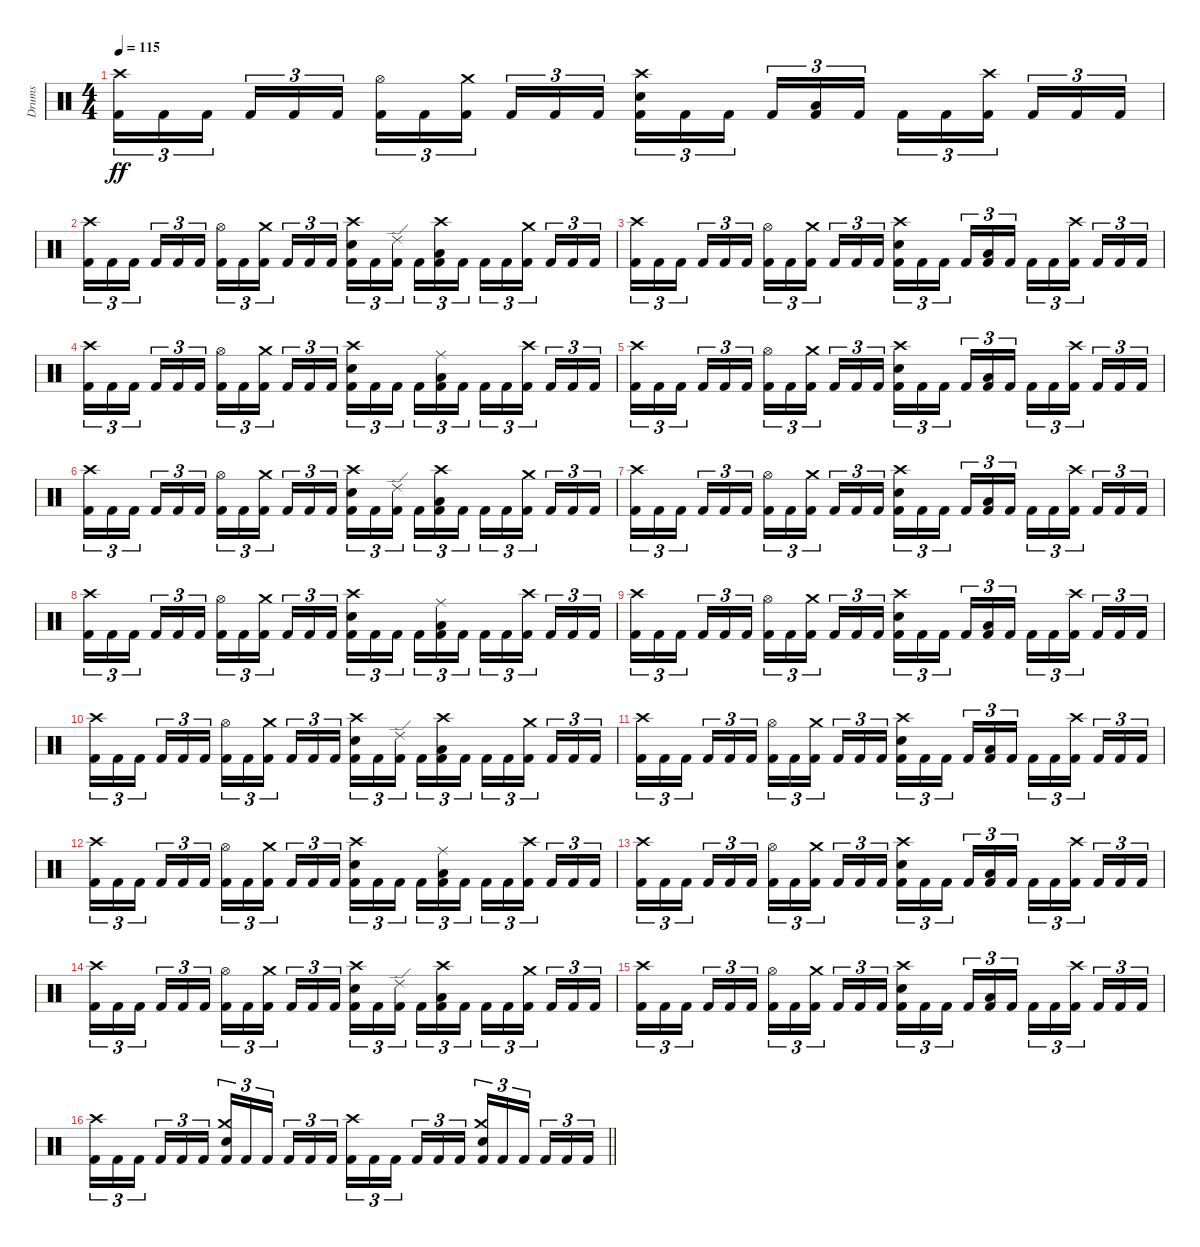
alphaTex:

\track ("Drums" "Drums") {instrument percussion}
\staff {score}
\articulation defaults
\ts (4 4)
\tempo 115
\clef neutral
\ks c
("Crash high (hit)" "Kick (hit) 2").16{tu (3 2) dy ff} "Kick (hit) 2".16{tu (3 2)} "Kick (hit) 2".16{tu (3 2) beam splitsecondary} "Kick (hit) 2".16{tu (3 2)} "Kick (hit) 2".16{tu (3 2)} "Kick (hit) 2".16{tu (3 2)} ("Hi-Hat (open)" "Kick (hit) 2").16{tu (3 2)} "Kick (hit) 2".16{tu (3 2)} ("Crash medium (hit)" "Kick (hit) 2").16{tu (3 2) beam splitsecondary} "Kick (hit) 2".16{tu (3 2)} "Kick (hit) 2".16{tu (3 2)} "Kick (hit) 2".16{tu (3 2)} ("Crash high (hit)" "Snare (hit) 2" "Kick (hit) 2").16{tu (3 2)} "Kick (hit) 2".16{tu (3 2)} "Kick (hit) 2".16{tu (3 2) beam splitsecondary} "Kick (hit) 2".16{tu (3 2)} ("Low Tom (hit)" "Kick (hit) 2").16{tu (3 2)} "Kick (hit) 2".16{tu (3 2)} "Kick (hit) 2".16{tu (3 2)} "Kick (hit) 2".16{tu (3 2)} ("Crash high (hit)" "Kick (hit) 2").16{tu (3 2) beam splitsecondary} "Kick (hit) 2".16{tu (3 2)} "Kick (hit) 2".16{tu (3 2)} "Kick (hit) 2".16{tu (3 2)} |
("Crash high (hit)" "Kick (hit) 2").16{tu (3 2)} "Kick (hit) 2".16{tu (3 2)} "Kick (hit) 2".16{tu (3 2) beam splitsecondary} "Kick (hit) 2".16{tu (3 2)} "Kick (hit) 2".16{tu (3 2)} "Kick (hit) 2".16{tu (3 2)} ("Hi-Hat (open)" "Kick (hit) 2").16{tu (3 2)} "Kick (hit) 2".16{tu (3 2)} ("Crash medium (hit)" "Kick (hit) 2").16{tu (3 2) beam splitsecondary} "Kick (hit) 2".16{tu (3 2)} "Kick (hit) 2".16{tu (3 2)} "Kick (hit) 2".16{tu (3 2)} ("Crash high (hit)" "Snare (hit) 2" "Kick (hit) 2").16{tu (3 2)} "Kick (hit) 2".16{tu (3 2)} ("Ride (edge) 2" "Kick (hit) 2").16{tu (3 2) beam splitsecondary} "Kick (hit) 2".16{tu (3 2)} ("Crash high (hit)" "Low Tom (hit)" "Kick (hit) 2").16{tu (3 2)} "Kick (hit) 2".16{tu (3 2)} "Kick (hit) 2".16{tu (3 2)} "Kick (hit) 2".16{tu (3 2)} ("Crash medium (hit)" "Kick (hit) 2").16{tu (3 2) beam splitsecondary} "Kick (hit) 2".16{tu (3 2)} "Kick (hit) 2".16{tu (3 2)} "Kick (hit) 2".16{tu (3 2)} |
("Crash high (hit)" "Kick (hit) 2").16{tu (3 2)} "Kick (hit) 2".16{tu (3 2)} "Kick (hit) 2".16{tu (3 2) beam splitsecondary} "Kick (hit) 2".16{tu (3 2)} "Kick (hit) 2".16{tu (3 2)} "Kick (hit) 2".16{tu (3 2)} ("Hi-Hat (open)" "Kick (hit) 2").16{tu (3 2)} "Kick (hit) 2".16{tu (3 2)} ("Crash medium (hit)" "Kick (hit) 2").16{tu (3 2) beam splitsecondary} "Kick (hit) 2".16{tu (3 2)} "Kick (hit) 2".16{tu (3 2)} "Kick (hit) 2".16{tu (3 2)} ("Crash high (hit)" "Snare (hit) 2" "Kick (hit) 2").16{tu (3 2)} "Kick (hit) 2".16{tu (3 2)} "Kick (hit) 2".16{tu (3 2) beam splitsecondary} "Kick (hit) 2".16{tu (3 2)} ("Low Tom (hit)" "Kick (hit) 2").16{tu (3 2)} "Kick (hit) 2".16{tu (3 2)} "Kick (hit) 2".16{tu (3 2)} "Kick (hit) 2".16{tu (3 2)} ("Crash high (hit)" "Kick (hit) 2").16{tu (3 2) beam splitsecondary} "Kick (hit) 2".16{tu (3 2)} "Kick (hit) 2".16{tu (3 2)} "Kick (hit) 2".16{tu (3 2)} |
("Crash high (hit)" "Kick (hit) 2").16{tu (3 2)} "Kick (hit) 2".16{tu (3 2)} "Kick (hit) 2".16{tu (3 2) beam splitsecondary} "Kick (hit) 2".16{tu (3 2)} "Kick (hit) 2".16{tu (3 2)} "Kick (hit) 2".16{tu (3 2)} ("Hi-Hat (open)" "Kick (hit) 2").16{tu (3 2)} "Kick (hit) 2".16{tu (3 2)} ("Crash medium (hit)" "Kick (hit) 2").16{tu (3 2) beam splitsecondary} "Kick (hit) 2".16{tu (3 2)} "Kick (hit) 2".16{tu (3 2)} "Kick (hit) 2".16{tu (3 2)} ("Crash high (hit)" "Snare (hit) 2" "Kick (hit) 2").16{tu (3 2)} "Kick (hit) 2".16{tu (3 2)} "Kick (hit) 2".16{tu (3 2) beam splitsecondary} "Kick (hit) 2".16{tu (3 2)} ("Ride (middle)" "Low Tom (hit)" "Kick (hit) 2").16{tu (3 2)} "Kick (hit) 2".16{tu (3 2)} "Kick (hit) 2".16{tu (3 2)} "Kick (hit) 2".16{tu (3 2)} ("Crash high (hit)" "Kick (hit) 2").16{tu (3 2) beam splitsecondary} "Kick (hit) 2".16{tu (3 2)} "Kick (hit) 2".16{tu (3 2)} "Kick (hit) 2".16{tu (3 2)} |
("Crash high (hit)" "Kick (hit) 2").16{tu (3 2)} "Kick (hit) 2".16{tu (3 2)} "Kick (hit) 2".16{tu (3 2) beam splitsecondary} "Kick (hit) 2".16{tu (3 2)} "Kick (hit) 2".16{tu (3 2)} "Kick (hit) 2".16{tu (3 2)} ("Hi-Hat (open)" "Kick (hit) 2").16{tu (3 2)} "Kick (hit) 2".16{tu (3 2)} ("Crash medium (hit)" "Kick (hit) 2").16{tu (3 2) beam splitsecondary} "Kick (hit) 2".16{tu (3 2)} "Kick (hit) 2".16{tu (3 2)} "Kick (hit) 2".16{tu (3 2)} ("Crash high (hit)" "Snare (hit) 2" "Kick (hit) 2").16{tu (3 2)} "Kick (hit) 2".16{tu (3 2)} "Kick (hit) 2".16{tu (3 2) beam splitsecondary} "Kick (hit) 2".16{tu (3 2)} ("Low Tom (hit)" "Kick (hit) 2").16{tu (3 2)} "Kick (hit) 2".16{tu (3 2)} "Kick (hit) 2".16{tu (3 2)} "Kick (hit) 2".16{tu (3 2)} ("Crash high (hit)" "Kick (hit) 2").16{tu (3 2) beam splitsecondary} "Kick (hit) 2".16{tu (3 2)} "Kick (hit) 2".16{tu (3 2)} "Kick (hit) 2".16{tu (3 2)} |
("Crash high (hit)" "Kick (hit) 2").16{tu (3 2)} "Kick (hit) 2".16{tu (3 2)} "Kick (hit) 2".16{tu (3 2) beam splitsecondary} "Kick (hit) 2".16{tu (3 2)} "Kick (hit) 2".16{tu (3 2)} "Kick (hit) 2".16{tu (3 2)} ("Hi-Hat (open)" "Kick (hit) 2").16{tu (3 2)} "Kick (hit) 2".16{tu (3 2)} ("Crash medium (hit)" "Kick (hit) 2").16{tu (3 2) beam splitsecondary} "Kick (hit) 2".16{tu (3 2)} "Kick (hit) 2".16{tu (3 2)} "Kick (hit) 2".16{tu (3 2)} ("Crash high (hit)" "Snare (hit) 2" "Kick (hit) 2").16{tu (3 2)} "Kick (hit) 2".16{tu (3 2)} ("Ride (edge) 2" "Kick (hit) 2").16{tu (3 2) beam splitsecondary} "Kick (hit) 2".16{tu (3 2)} ("Crash high (hit)" "Low Tom (hit)" "Kick (hit) 2").16{tu (3 2)} "Kick (hit) 2".16{tu (3 2)} "Kick (hit) 2".16{tu (3 2)} "Kick (hit) 2".16{tu (3 2)} ("Crash medium (hit)" "Kick (hit) 2").16{tu (3 2) beam splitsecondary} "Kick (hit) 2".16{tu (3 2)} "Kick (hit) 2".16{tu (3 2)} "Kick (hit) 2".16{tu (3 2)} |
("Crash high (hit)" "Kick (hit) 2").16{tu (3 2)} "Kick (hit) 2".16{tu (3 2)} "Kick (hit) 2".16{tu (3 2) beam splitsecondary} "Kick (hit) 2".16{tu (3 2)} "Kick (hit) 2".16{tu (3 2)} "Kick (hit) 2".16{tu (3 2)} ("Hi-Hat (open)" "Kick (hit) 2").16{tu (3 2)} "Kick (hit) 2".16{tu (3 2)} ("Crash medium (hit)" "Kick (hit) 2").16{tu (3 2) beam splitsecondary} "Kick (hit) 2".16{tu (3 2)} "Kick (hit) 2".16{tu (3 2)} "Kick (hit) 2".16{tu (3 2)} ("Crash high (hit)" "Snare (hit) 2" "Kick (hit) 2").16{tu (3 2)} "Kick (hit) 2".16{tu (3 2)} "Kick (hit) 2".16{tu (3 2) beam splitsecondary} "Kick (hit) 2".16{tu (3 2)} ("Low Tom (hit)" "Kick (hit) 2").16{tu (3 2)} "Kick (hit) 2".16{tu (3 2)} "Kick (hit) 2".16{tu (3 2)} "Kick (hit) 2".16{tu (3 2)} ("Crash high (hit)" "Kick (hit) 2").16{tu (3 2) beam splitsecondary} "Kick (hit) 2".16{tu (3 2)} "Kick (hit) 2".16{tu (3 2)} "Kick (hit) 2".16{tu (3 2)} |
("Crash high (hit)" "Kick (hit) 2").16{tu (3 2)} "Kick (hit) 2".16{tu (3 2)} "Kick (hit) 2".16{tu (3 2) beam splitsecondary} "Kick (hit) 2".16{tu (3 2)} "Kick (hit) 2".16{tu (3 2)} "Kick (hit) 2".16{tu (3 2)} ("Hi-Hat (open)" "Kick (hit) 2").16{tu (3 2)} "Kick (hit) 2".16{tu (3 2)} ("Crash medium (hit)" "Kick (hit) 2").16{tu (3 2) beam splitsecondary} "Kick (hit) 2".16{tu (3 2)} "Kick (hit) 2".16{tu (3 2)} "Kick (hit) 2".16{tu (3 2)} ("Crash high (hit)" "Snare (hit) 2" "Kick (hit) 2").16{tu (3 2)} "Kick (hit) 2".16{tu (3 2)} "Kick (hit) 2".16{tu (3 2) beam splitsecondary} "Kick (hit) 2".16{tu (3 2)} ("Ride (middle)" "Low Tom (hit)" "Kick (hit) 2").16{tu (3 2)} "Kick (hit) 2".16{tu (3 2)} "Kick (hit) 2".16{tu (3 2)} "Kick (hit) 2".16{tu (3 2)} ("Crash high (hit)" "Kick (hit) 2").16{tu (3 2) beam splitsecondary} "Kick (hit) 2".16{tu (3 2)} "Kick (hit) 2".16{tu (3 2)} "Kick (hit) 2".16{tu (3 2)} |
("Crash high (hit)" "Kick (hit) 2").16{tu (3 2)} "Kick (hit) 2".16{tu (3 2)} "Kick (hit) 2".16{tu (3 2) beam splitsecondary} "Kick (hit) 2".16{tu (3 2)} "Kick (hit) 2".16{tu (3 2)} "Kick (hit) 2".16{tu (3 2)} ("Hi-Hat (open)" "Kick (hit) 2").16{tu (3 2)} "Kick (hit) 2".16{tu (3 2)} ("Crash medium (hit)" "Kick (hit) 2").16{tu (3 2) beam splitsecondary} "Kick (hit) 2".16{tu (3 2)} "Kick (hit) 2".16{tu (3 2)} "Kick (hit) 2".16{tu (3 2)} ("Crash high (hit)" "Snare (hit) 2" "Kick (hit) 2").16{tu (3 2)} "Kick (hit) 2".16{tu (3 2)} "Kick (hit) 2".16{tu (3 2) beam splitsecondary} "Kick (hit) 2".16{tu (3 2)} ("Low Tom (hit)" "Kick (hit) 2").16{tu (3 2)} "Kick (hit) 2".16{tu (3 2)} "Kick (hit) 2".16{tu (3 2)} "Kick (hit) 2".16{tu (3 2)} ("Crash high (hit)" "Kick (hit) 2").16{tu (3 2) beam splitsecondary} "Kick (hit) 2".16{tu (3 2)} "Kick (hit) 2".16{tu (3 2)} "Kick (hit) 2".16{tu (3 2)} |
("Crash high (hit)" "Kick (hit) 2").16{tu (3 2)} "Kick (hit) 2".16{tu (3 2)} "Kick (hit) 2".16{tu (3 2) beam splitsecondary} "Kick (hit) 2".16{tu (3 2)} "Kick (hit) 2".16{tu (3 2)} "Kick (hit) 2".16{tu (3 2)} ("Hi-Hat (open)" "Kick (hit) 2").16{tu (3 2)} "Kick (hit) 2".16{tu (3 2)} ("Crash medium (hit)" "Kick (hit) 2").16{tu (3 2) beam splitsecondary} "Kick (hit) 2".16{tu (3 2)} "Kick (hit) 2".16{tu (3 2)} "Kick (hit) 2".16{tu (3 2)} ("Crash high (hit)" "Snare (hit) 2" "Kick (hit) 2").16{tu (3 2)} "Kick (hit) 2".16{tu (3 2)} ("Ride (edge) 2" "Kick (hit) 2").16{tu (3 2) beam splitsecondary} "Kick (hit) 2".16{tu (3 2)} ("Crash high (hit)" "Low Tom (hit)" "Kick (hit) 2").16{tu (3 2)} "Kick (hit) 2".16{tu (3 2)} "Kick (hit) 2".16{tu (3 2)} "Kick (hit) 2".16{tu (3 2)} ("Crash medium (hit)" "Kick (hit) 2").16{tu (3 2) beam splitsecondary} "Kick (hit) 2".16{tu (3 2)} "Kick (hit) 2".16{tu (3 2)} "Kick (hit) 2".16{tu (3 2)} |
("Crash high (hit)" "Kick (hit) 2").16{tu (3 2)} "Kick (hit) 2".16{tu (3 2)} "Kick (hit) 2".16{tu (3 2) beam splitsecondary} "Kick (hit) 2".16{tu (3 2)} "Kick (hit) 2".16{tu (3 2)} "Kick (hit) 2".16{tu (3 2)} ("Hi-Hat (open)" "Kick (hit) 2").16{tu (3 2)} "Kick (hit) 2".16{tu (3 2)} ("Crash medium (hit)" "Kick (hit) 2").16{tu (3 2) beam splitsecondary} "Kick (hit) 2".16{tu (3 2)} "Kick (hit) 2".16{tu (3 2)} "Kick (hit) 2".16{tu (3 2)} ("Crash high (hit)" "Snare (hit) 2" "Kick (hit) 2").16{tu (3 2)} "Kick (hit) 2".16{tu (3 2)} "Kick (hit) 2".16{tu (3 2) beam splitsecondary} "Kick (hit) 2".16{tu (3 2)} ("Low Tom (hit)" "Kick (hit) 2").16{tu (3 2)} "Kick (hit) 2".16{tu (3 2)} "Kick (hit) 2".16{tu (3 2)} "Kick (hit) 2".16{tu (3 2)} ("Crash high (hit)" "Kick (hit) 2").16{tu (3 2) beam splitsecondary} "Kick (hit) 2".16{tu (3 2)} "Kick (hit) 2".16{tu (3 2)} "Kick (hit) 2".16{tu (3 2)} |
("Crash high (hit)" "Kick (hit) 2").16{tu (3 2)} "Kick (hit) 2".16{tu (3 2)} "Kick (hit) 2".16{tu (3 2) beam splitsecondary} "Kick (hit) 2".16{tu (3 2)} "Kick (hit) 2".16{tu (3 2)} "Kick (hit) 2".16{tu (3 2)} ("Hi-Hat (open)" "Kick (hit) 2").16{tu (3 2)} "Kick (hit) 2".16{tu (3 2)} ("Crash medium (hit)" "Kick (hit) 2").16{tu (3 2) beam splitsecondary} "Kick (hit) 2".16{tu (3 2)} "Kick (hit) 2".16{tu (3 2)} "Kick (hit) 2".16{tu (3 2)} ("Crash high (hit)" "Snare (hit) 2" "Kick (hit) 2").16{tu (3 2)} "Kick (hit) 2".16{tu (3 2)} "Kick (hit) 2".16{tu (3 2) beam splitsecondary} "Kick (hit) 2".16{tu (3 2)} ("Ride (middle)" "Low Tom (hit)" "Kick (hit) 2").16{tu (3 2)} "Kick (hit) 2".16{tu (3 2)} "Kick (hit) 2".16{tu (3 2)} "Kick (hit) 2".16{tu (3 2)} ("Crash high (hit)" "Kick (hit) 2").16{tu (3 2) beam splitsecondary} "Kick (hit) 2".16{tu (3 2)} "Kick (hit) 2".16{tu (3 2)} "Kick (hit) 2".16{tu (3 2)} |
("Crash high (hit)" "Kick (hit) 2").16{tu (3 2)} "Kick (hit) 2".16{tu (3 2)} "Kick (hit) 2".16{tu (3 2) beam splitsecondary} "Kick (hit) 2".16{tu (3 2)} "Kick (hit) 2".16{tu (3 2)} "Kick (hit) 2".16{tu (3 2)} ("Hi-Hat (open)" "Kick (hit) 2").16{tu (3 2)} "Kick (hit) 2".16{tu (3 2)} ("Crash medium (hit)" "Kick (hit) 2").16{tu (3 2) beam splitsecondary} "Kick (hit) 2".16{tu (3 2)} "Kick (hit) 2".16{tu (3 2)} "Kick (hit) 2".16{tu (3 2)} ("Crash high (hit)" "Snare (hit) 2" "Kick (hit) 2").16{tu (3 2)} "Kick (hit) 2".16{tu (3 2)} "Kick (hit) 2".16{tu (3 2) beam splitsecondary} "Kick (hit) 2".16{tu (3 2)} ("Low Tom (hit)" "Kick (hit) 2").16{tu (3 2)} "Kick (hit) 2".16{tu (3 2)} "Kick (hit) 2".16{tu (3 2)} "Kick (hit) 2".16{tu (3 2)} ("Crash high (hit)" "Kick (hit) 2").16{tu (3 2) beam splitsecondary} "Kick (hit) 2".16{tu (3 2)} "Kick (hit) 2".16{tu (3 2)} "Kick (hit) 2".16{tu (3 2)} |
("Crash high (hit)" "Kick (hit) 2").16{tu (3 2)} "Kick (hit) 2".16{tu (3 2)} "Kick (hit) 2".16{tu (3 2) beam splitsecondary} "Kick (hit) 2".16{tu (3 2)} "Kick (hit) 2".16{tu (3 2)} "Kick (hit) 2".16{tu (3 2)} ("Hi-Hat (open)" "Kick (hit) 2").16{tu (3 2)} "Kick (hit) 2".16{tu (3 2)} ("Crash medium (hit)" "Kick (hit) 2").16{tu (3 2) beam splitsecondary} "Kick (hit) 2".16{tu (3 2)} "Kick (hit) 2".16{tu (3 2)} "Kick (hit) 2".16{tu (3 2)} ("Crash high (hit)" "Snare (hit) 2" "Kick (hit) 2").16{tu (3 2)} "Kick (hit) 2".16{tu (3 2)} ("Ride (edge) 2" "Kick (hit) 2").16{tu (3 2) beam splitsecondary} "Kick (hit) 2".16{tu (3 2)} ("Crash high (hit)" "Low Tom (hit)" "Kick (hit) 2").16{tu (3 2)} "Kick (hit) 2".16{tu (3 2)} "Kick (hit) 2".16{tu (3 2)} "Kick (hit) 2".16{tu (3 2)} ("Crash medium (hit)" "Kick (hit) 2").16{tu (3 2) beam splitsecondary} "Kick (hit) 2".16{tu (3 2)} "Kick (hit) 2".16{tu (3 2)} "Kick (hit) 2".16{tu (3 2)} |
("Crash high (hit)" "Kick (hit) 2").16{tu (3 2)} "Kick (hit) 2".16{tu (3 2)} "Kick (hit) 2".16{tu (3 2) beam splitsecondary} "Kick (hit) 2".16{tu (3 2)} "Kick (hit) 2".16{tu (3 2)} "Kick (hit) 2".16{tu (3 2)} ("Hi-Hat (open)" "Kick (hit) 2").16{tu (3 2)} "Kick (hit) 2".16{tu (3 2)} ("Crash medium (hit)" "Kick (hit) 2").16{tu (3 2) beam splitsecondary} "Kick (hit) 2".16{tu (3 2)} "Kick (hit) 2".16{tu (3 2)} "Kick (hit) 2".16{tu (3 2)} ("Crash high (hit)" "Snare (hit) 2" "Kick (hit) 2").16{tu (3 2)} "Kick (hit) 2".16{tu (3 2)} "Kick (hit) 2".16{tu (3 2) beam splitsecondary} "Kick (hit) 2".16{tu (3 2)} ("Low Tom (hit)" "Kick (hit) 2").16{tu (3 2)} "Kick (hit) 2".16{tu (3 2)} "Kick (hit) 2".16{tu (3 2)} "Kick (hit) 2".16{tu (3 2)} ("Crash high (hit)" "Kick (hit) 2").16{tu (3 2) beam splitsecondary} "Kick (hit) 2".16{tu (3 2)} "Kick (hit) 2".16{tu (3 2)} "Kick (hit) 2".16{tu (3 2)} |
\barLineRight lightlight
("Crash high (hit)" "Kick (hit) 2").16{tu (3 2)} "Kick (hit) 2".16{tu (3 2)} "Kick (hit) 2".16{tu (3 2) beam splitsecondary} "Kick (hit) 2".16{tu (3 2)} "Kick (hit) 2".16{tu (3 2)} "Kick (hit) 2".16{tu (3 2)} ("Crash medium (hit)" "Snare (hit) 2" "Kick (hit) 2").16{tu (3 2)} "Kick (hit) 2".16{tu (3 2)} "Kick (hit) 2".16{tu (3 2) beam splitsecondary} "Kick (hit) 2".16{tu (3 2)} "Kick (hit) 2".16{tu (3 2)} "Kick (hit) 2".16{tu (3 2)} ("Crash high (hit)" "Kick (hit) 2").16{tu (3 2)} "Kick (hit) 2".16{tu (3 2)} "Kick (hit) 2".16{tu (3 2) beam splitsecondary} "Kick (hit) 2".16{tu (3 2)} "Kick (hit) 2".16{tu (3 2)} "Kick (hit) 2".16{tu (3 2)} ("Crash medium (hit)" "Snare (hit) 2" "Kick (hit) 2").16{tu (3 2)} "Kick (hit) 2".16{tu (3 2)} "Kick (hit) 2".16{tu (3 2) beam splitsecondary} "Kick (hit) 2".16{tu (3 2)} "Kick (hit) 2".16{tu (3 2)} "Kick (hit) 2".16{tu (3 2)}
